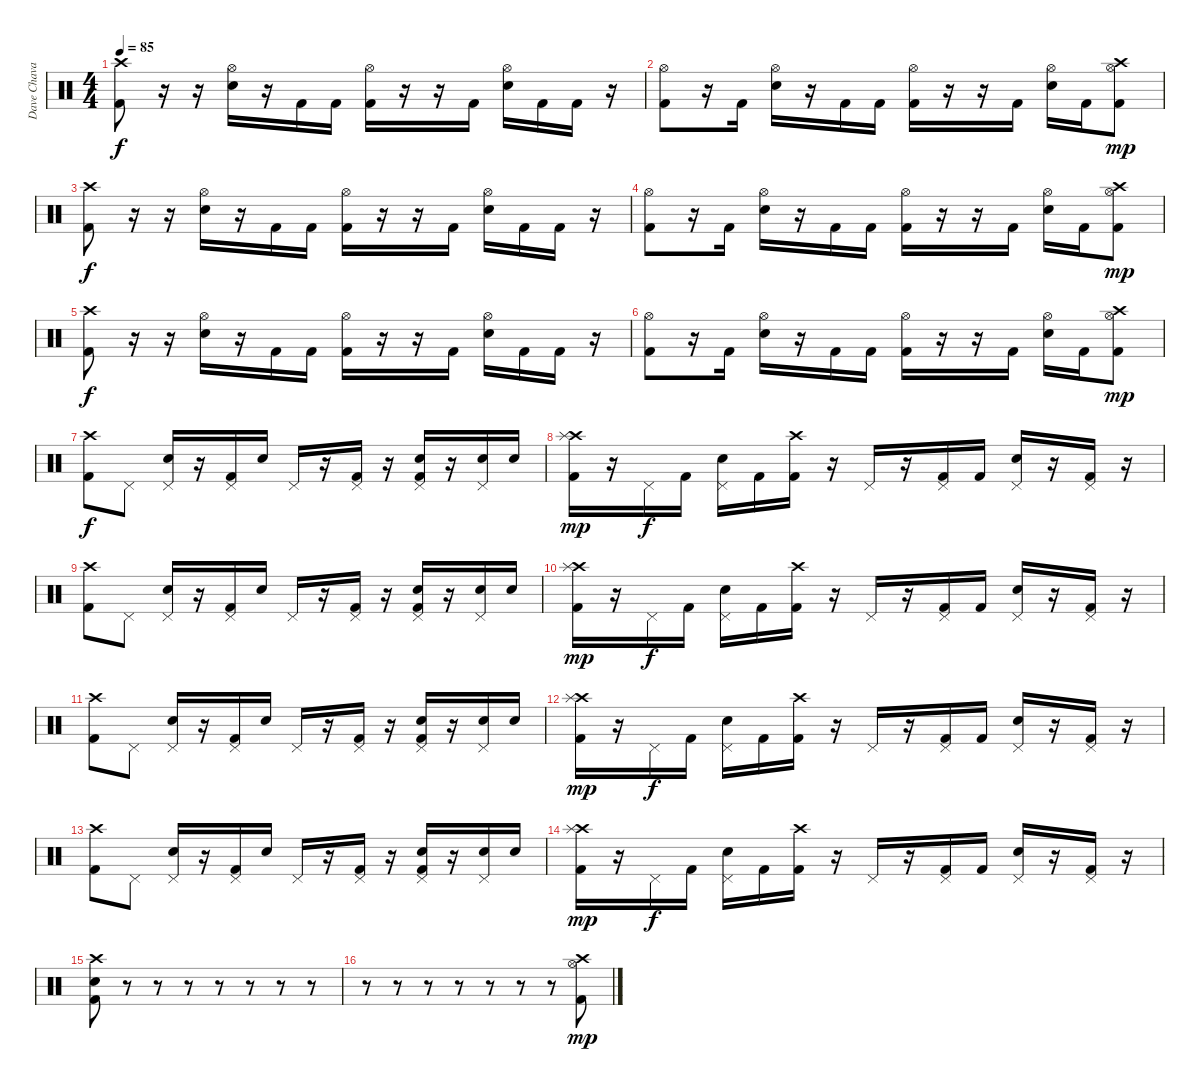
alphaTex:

\track ("Dave Chavarri" "Dave Chava") {instrument percussion}
\staff {score}
\articulation defaults
\ts (4 4)
\tempo 85
\clef neutral
\ks c
("Crash high (hit)" "Kick (hit) 2").8{dy f} r.16 r.16 ("Hi-Hat (open)" "Snare (hit) 2").16 r.16 "Kick (hit) 2".16 "Kick (hit) 2".16 ("Hi-Hat (open)" "Kick (hit) 2").16 r.16 r.16 "Kick (hit) 2".16 ("Hi-Hat (open)" "Snare (hit) 2").16 "Kick (hit) 2".16 "Kick (hit) 2".16 r.16 |
("Hi-Hat (open)" "Kick (hit) 2").8 r.16 "Kick (hit) 2".16 ("Hi-Hat (open)" "Snare (hit) 2").16 r.16 "Kick (hit) 2".16 "Kick (hit) 2".16 ("Hi-Hat (open)" "Kick (hit) 2").16 r.16 r.16 "Kick (hit) 2".16 ("Hi-Hat (open)" "Snare (hit) 2").16 "Kick (hit) 2".16 ("Crash high (hit)" "Hi-Hat (open)" "Kick (hit) 2").8{dy mp} |
("Crash high (hit)" "Kick (hit) 2").8{dy f} r.16 r.16 ("Hi-Hat (open)" "Snare (hit) 2").16 r.16 "Kick (hit) 2".16 "Kick (hit) 2".16 ("Hi-Hat (open)" "Kick (hit) 2").16 r.16 r.16 "Kick (hit) 2".16 ("Hi-Hat (open)" "Snare (hit) 2").16 "Kick (hit) 2".16 "Kick (hit) 2".16 r.16 |
("Hi-Hat (open)" "Kick (hit) 2").8 r.16 "Kick (hit) 2".16 ("Hi-Hat (open)" "Snare (hit) 2").16 r.16 "Kick (hit) 2".16 "Kick (hit) 2".16 ("Hi-Hat (open)" "Kick (hit) 2").16 r.16 r.16 "Kick (hit) 2".16 ("Hi-Hat (open)" "Snare (hit) 2").16 "Kick (hit) 2".16 ("Crash high (hit)" "Hi-Hat (open)" "Kick (hit) 2").8{dy mp} |
("Crash high (hit)" "Kick (hit) 2").8{dy f} r.16 r.16 ("Hi-Hat (open)" "Snare (hit) 2").16 r.16 "Kick (hit) 2".16 "Kick (hit) 2".16 ("Hi-Hat (open)" "Kick (hit) 2").16 r.16 r.16 "Kick (hit) 2".16 ("Hi-Hat (open)" "Snare (hit) 2").16 "Kick (hit) 2".16 "Kick (hit) 2".16 r.16 |
("Hi-Hat (open)" "Kick (hit) 2").8 r.16 "Kick (hit) 2".16 ("Hi-Hat (open)" "Snare (hit) 2").16 r.16 "Kick (hit) 2".16 "Kick (hit) 2".16 ("Hi-Hat (open)" "Kick (hit) 2").16 r.16 r.16 "Kick (hit) 2".16 ("Hi-Hat (open)" "Snare (hit) 2").16 "Kick (hit) 2".16 ("Crash high (hit)" "Hi-Hat (open)" "Kick (hit) 2").8{dy mp} |
("Crash high (hit)" "Kick (hit) 2").8{dy f} "Pedal Hi-Hat (hit)".8 ("Pedal Hi-Hat (hit)" "Snare (hit) 2").16 r.16 ("Pedal Hi-Hat (hit)" "Kick (hit) 2").16 "Snare (hit) 2".16 "Pedal Hi-Hat (hit)".16 r.16 ("Pedal Hi-Hat (hit)" "Kick (hit) 2").16 r.16 ("Pedal Hi-Hat (hit)" "Snare (hit) 2" "Kick (hit) 2").16 r.16 ("Pedal Hi-Hat (hit)" "Snare (hit) 2").16 "Snare (hit) 2".16 |
("Crash high (hit)" "Splash (hit)" "Kick (hit) 2").16{dy mp} r.16 "Pedal Hi-Hat (hit)".16{dy f} "Kick (hit) 2".16 ("Pedal Hi-Hat (hit)" "Snare (hit) 2").16 "Kick (hit) 2".16 ("Crash high (hit)" "Kick (hit) 2").16 r.16 "Pedal Hi-Hat (hit)".16 r.16 ("Pedal Hi-Hat (hit)" "Kick (hit) 2").16 "Kick (hit) 2".16 ("Pedal Hi-Hat (hit)" "Snare (hit) 2").16 r.16 ("Pedal Hi-Hat (hit)" "Kick (hit) 2").16 r.16 |
("Crash high (hit)" "Kick (hit) 2").8 "Pedal Hi-Hat (hit)".8 ("Pedal Hi-Hat (hit)" "Snare (hit) 2").16 r.16 ("Pedal Hi-Hat (hit)" "Kick (hit) 2").16 "Snare (hit) 2".16 "Pedal Hi-Hat (hit)".16 r.16 ("Pedal Hi-Hat (hit)" "Kick (hit) 2").16 r.16 ("Pedal Hi-Hat (hit)" "Snare (hit) 2" "Kick (hit) 2").16 r.16 ("Pedal Hi-Hat (hit)" "Snare (hit) 2").16 "Snare (hit) 2".16 |
("Crash high (hit)" "Splash (hit)" "Kick (hit) 2").16{dy mp} r.16 "Pedal Hi-Hat (hit)".16{dy f} "Kick (hit) 2".16 ("Pedal Hi-Hat (hit)" "Snare (hit) 2").16 "Kick (hit) 2".16 ("Crash high (hit)" "Kick (hit) 2").16 r.16 "Pedal Hi-Hat (hit)".16 r.16 ("Pedal Hi-Hat (hit)" "Kick (hit) 2").16 "Kick (hit) 2".16 ("Pedal Hi-Hat (hit)" "Snare (hit) 2").16 r.16 ("Pedal Hi-Hat (hit)" "Kick (hit) 2").16 r.16 |
("Crash high (hit)" "Kick (hit) 2").8 "Pedal Hi-Hat (hit)".8 ("Pedal Hi-Hat (hit)" "Snare (hit) 2").16 r.16 ("Pedal Hi-Hat (hit)" "Kick (hit) 2").16 "Snare (hit) 2".16 "Pedal Hi-Hat (hit)".16 r.16 ("Pedal Hi-Hat (hit)" "Kick (hit) 2").16 r.16 ("Pedal Hi-Hat (hit)" "Snare (hit) 2" "Kick (hit) 2").16 r.16 ("Pedal Hi-Hat (hit)" "Snare (hit) 2").16 "Snare (hit) 2".16 |
("Crash high (hit)" "Splash (hit)" "Kick (hit) 2").16{dy mp} r.16 "Pedal Hi-Hat (hit)".16{dy f} "Kick (hit) 2".16 ("Pedal Hi-Hat (hit)" "Snare (hit) 2").16 "Kick (hit) 2".16 ("Crash high (hit)" "Kick (hit) 2").16 r.16 "Pedal Hi-Hat (hit)".16 r.16 ("Pedal Hi-Hat (hit)" "Kick (hit) 2").16 "Kick (hit) 2".16 ("Pedal Hi-Hat (hit)" "Snare (hit) 2").16 r.16 ("Pedal Hi-Hat (hit)" "Kick (hit) 2").16 r.16 |
("Crash high (hit)" "Kick (hit) 2").8 "Pedal Hi-Hat (hit)".8 ("Pedal Hi-Hat (hit)" "Snare (hit) 2").16 r.16 ("Pedal Hi-Hat (hit)" "Kick (hit) 2").16 "Snare (hit) 2".16 "Pedal Hi-Hat (hit)".16 r.16 ("Pedal Hi-Hat (hit)" "Kick (hit) 2").16 r.16 ("Pedal Hi-Hat (hit)" "Snare (hit) 2" "Kick (hit) 2").16 r.16 ("Pedal Hi-Hat (hit)" "Snare (hit) 2").16 "Snare (hit) 2".16 |
("Crash high (hit)" "Splash (hit)" "Kick (hit) 2").16{dy mp} r.16 "Pedal Hi-Hat (hit)".16{dy f} "Kick (hit) 2".16 ("Pedal Hi-Hat (hit)" "Snare (hit) 2").16 "Kick (hit) 2".16 ("Crash high (hit)" "Kick (hit) 2").16 r.16 "Pedal Hi-Hat (hit)".16 r.16 ("Pedal Hi-Hat (hit)" "Kick (hit) 2").16 "Kick (hit) 2".16 ("Pedal Hi-Hat (hit)" "Snare (hit) 2").16 r.16 ("Pedal Hi-Hat (hit)" "Kick (hit) 2").16 r.16 |
("Crash high (hit)"{pm} "Snare (hit) 2" "Kick (hit) 2").8 r.8 r.8 r.8 r.8 r.8 r.8 r.8 |
r.8 r.8 r.8 r.8 r.8 r.8 r.8 ("Crash high (hit)" "Hi-Hat (open)" "Kick (hit) 2").8{dy mp}
